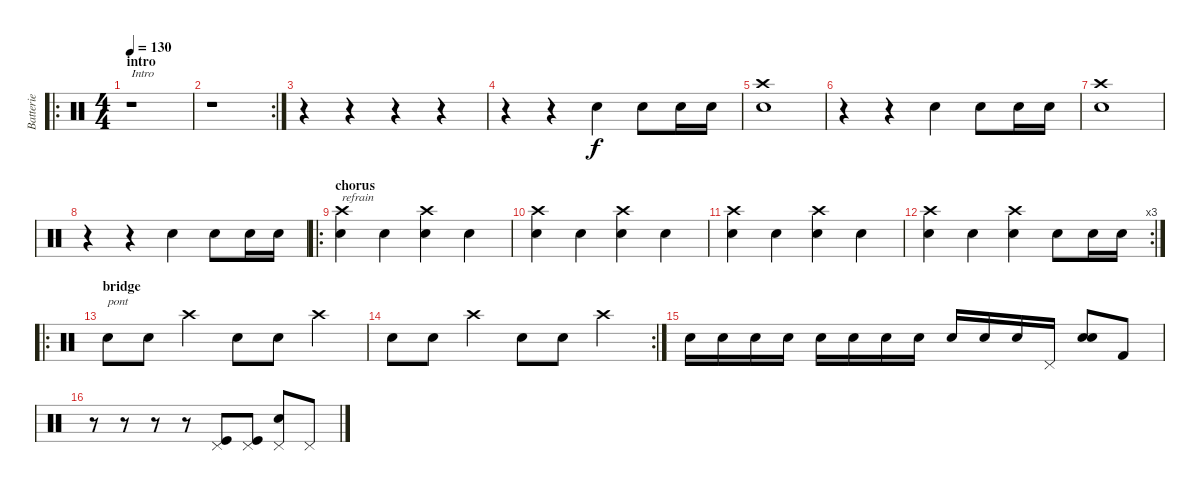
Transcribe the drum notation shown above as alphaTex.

\track ("Batterie" "Batterie") {instrument percussion}
\staff {score}
\articulation defaults
\ro
\ts (4 4)
\section ("" "intro")
\tempo 130
\clef neutral
\ks c
r.1{txt "Intro" dy f} |
\rc 2
r.1 |
r.4 r.4 r.4 r.4 |
r.4 r.4 "Snare (hit) 2".4 "Snare (hit) 2".8 "Snare (hit) 2".16 "Snare (hit) 2".16 |
("Crash high (hit)" "Electric Snare (hit)").1 |
r.4 r.4 "Snare (hit) 2".4 "Snare (hit) 2".8 "Snare (hit) 2".16 "Snare (hit) 2".16 |
("Crash high (hit)" "Electric Snare (hit)").1 |
r.4 r.4 "Snare (hit) 2".4 "Snare (hit) 2".8 "Snare (hit) 2".16 "Snare (hit) 2".16 |
\ro
\section ("" "chorus")
("Crash high (hit)" "Electric Snare (hit)").4{txt "refrain"} "Electric Snare (hit)".4 ("Crash high (hit)" "Electric Snare (hit)").4 "Electric Snare (hit)".4 |
("Crash high (hit)" "Electric Snare (hit)").4 "Electric Snare (hit)".4 ("Crash high (hit)" "Electric Snare (hit)").4 "Electric Snare (hit)".4 |
("Crash high (hit)" "Electric Snare (hit)").4 "Electric Snare (hit)".4 ("Crash high (hit)" "Electric Snare (hit)").4 "Electric Snare (hit)".4 |
\rc 3
("Crash high (hit)" "Electric Snare (hit)").4 "Electric Snare (hit)".4 ("Crash high (hit)" "Electric Snare (hit)").4 "Electric Snare (hit)".8 "Electric Snare (hit)".16 "Electric Snare (hit)".16 |
\ro
\section ("" "bridge")
"Snare (hit) 2".8{txt "pont"} "Snare (hit) 2".8 "Crash high (hit)".4 "Snare (hit) 2".8 "Snare (hit) 2".8 "Crash high (hit)".4 |
\rc 2 "Snare (hit) 2".8 "Snare (hit) 2".8 "Crash high (hit)".4 "Snare (hit) 2".8 "Snare (hit) 2".8 "Crash high (hit)".4
|
"Snare (hit) 2".16 "Snare (hit) 2".16 "Snare (hit) 2".16 "Snare (hit) 2".16 "Snare (hit) 2".16 "Snare (hit) 2".16 "Snare (hit) 2".16 "Snare (hit) 2".16 "Snare (hit) 2".16 "Snare (hit) 2".16 "Snare (hit) 2".16 "Pedal Hi-Hat (hit)".16 ("Electric Snare (hit)" "Snare (hit) 2").8 "Kick (hit) 2".8 |
r.8 r.8 r.8 r.8 ("Pedal Hi-Hat (hit)" "Kick (hit)").8 ("Pedal Hi-Hat (hit)" "Kick (hit)").8 ("Pedal Hi-Hat (hit)" "Snare (hit) 2").8 "Pedal Hi-Hat (hit)".8
